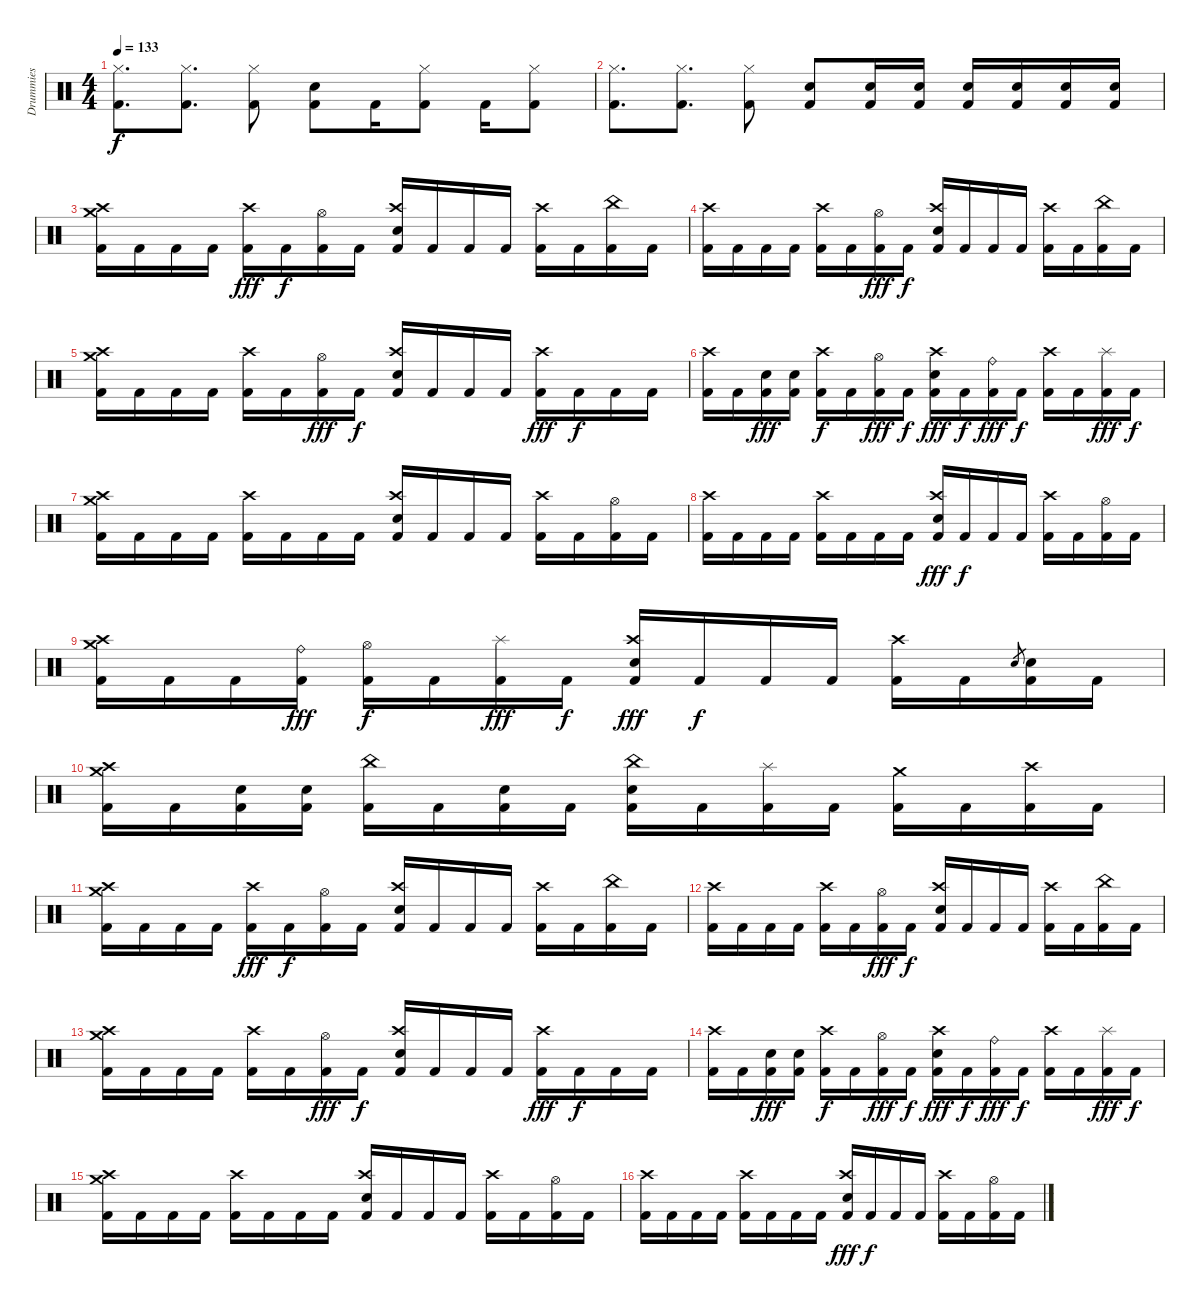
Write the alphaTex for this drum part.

\track ("Drummies" "Drummies") {instrument percussion}
\staff {score}
\articulation defaults
\ts (4 4)
\tempo 133
\clef neutral
\ks c
("Hi-Hat (closed)" "Kick (hit) 2").8{d dy f} ("Hi-Hat (closed)" "Kick (hit) 2").8{d} ("Hi-Hat (closed)" "Kick (hit) 2").8 ("Hand Clap (hit)" "Kick (hit) 2").8 "Kick (hit) 2".16 ("Hi-Hat (closed)" "Kick (hit) 2").8 "Kick (hit) 2".16 ("Hi-Hat (closed)" "Kick (hit) 2").8 |
("Hi-Hat (closed)" "Kick (hit) 2").8{d} ("Hi-Hat (closed)" "Kick (hit) 2").8{d} ("Hi-Hat (closed)" "Kick (hit) 2").8 ("Hand Clap (hit)" "Kick (hit) 2").8 ("Hand Clap (hit)" "Kick (hit) 2").16 ("Hand Clap (hit)" "Kick (hit) 2").16 ("Hand Clap (hit)" "Kick (hit) 2").16 ("Hand Clap (hit)" "Kick (hit) 2").16 ("Hand Clap (hit)" "Kick (hit) 2").16 ("Hand Clap (hit)" "Kick (hit) 2").16 |
("Crash high (hit)" "Crash medium (hit)" "Kick (hit) 2").16 "Kick (hit) 2".16 "Kick (hit) 2".16 "Kick (hit) 2".16 ("Crash high (hit)" "Kick (hit) 2").16{dy fff} "Kick (hit) 2".16{dy f} ("Hi-Hat (open)" "Kick (hit) 2").16 "Kick (hit) 2".16 ("Crash high (hit)" "Electric Snare (hit)" "Kick (hit) 2").16 "Kick (hit) 2".16 "Kick (hit) 2".16 "Kick (hit) 2".16 ("Crash high (hit)" "Kick (hit) 2").16 "Kick (hit) 2".16 ("China (hit)" "Kick (hit) 2").16 "Kick (hit) 2".16 |
("Crash high (hit)" "Kick (hit) 2").16 "Kick (hit) 2".16 "Kick (hit) 2".16 "Kick (hit) 2".16 ("Crash high (hit)" "Kick (hit) 2").16 "Kick (hit) 2".16 ("Hi-Hat (open)" "Kick (hit) 2").16{dy fff} "Kick (hit) 2".16{dy f} ("Crash high (hit)" "Electric Snare (hit)" "Kick (hit) 2").16 "Kick (hit) 2".16 "Kick (hit) 2".16 "Kick (hit) 2".16 ("Crash high (hit)" "Kick (hit) 2").16 "Kick (hit) 2".16 ("China (hit)" "Kick (hit) 2").16 "Kick (hit) 2".16 |
("Crash high (hit)" "Crash medium (hit)" "Kick (hit) 2").16 "Kick (hit) 2".16 "Kick (hit) 2".16 "Kick (hit) 2".16 ("Crash high (hit)" "Kick (hit) 2").16 "Kick (hit) 2".16 ("Hi-Hat (open)" "Kick (hit) 2").16{dy fff} "Kick (hit) 2".16{dy f} ("Crash high (hit)" "Electric Snare (hit)" "Kick (hit) 2").16 "Kick (hit) 2".16 "Kick (hit) 2".16 "Kick (hit) 2".16 ("Crash high (hit)" "Kick (hit) 2").16{dy fff} "Kick (hit) 2".16{dy f} "Kick (hit) 2".16 "Kick (hit) 2".16 |
("Crash high (hit)" "Kick (hit) 2").16 "Kick (hit) 2".16 ("Electric Snare (hit)" "Kick (hit) 2").16{dy fff} ("Electric Snare (hit)" "Kick (hit) 2").16 ("Crash high (hit)" "Kick (hit) 2").16{dy f} "Kick (hit) 2".16 ("Hi-Hat (open)" "Kick (hit) 2").16{dy fff} "Kick (hit) 2".16{dy f} ("Crash high (hit)" "Electric Snare (hit)" "Kick (hit) 2").16{dy fff} "Kick (hit) 2".16{dy f} ("Ride (bell)" "Kick (hit) 2").16{dy fff} "Kick (hit) 2".16{dy f} ("Crash high (hit)" "Kick (hit) 2").16 "Kick (hit) 2".16 ("Splash (hit)" "Kick (hit) 2").16{dy fff} "Kick (hit) 2".16{dy f} |
("Crash high (hit)" "Crash medium (hit)" "Kick (hit) 2").16 "Kick (hit) 2".16 "Kick (hit) 2".16 "Kick (hit) 2".16 ("Crash high (hit)" "Kick (hit) 2").16 "Kick (hit) 2".16 "Kick (hit) 2".16 "Kick (hit) 2".16 ("Crash high (hit)" "Electric Snare (hit)" "Kick (hit) 2").16 "Kick (hit) 2".16 "Kick (hit) 2".16 "Kick (hit) 2".16 ("Crash high (hit)" "Kick (hit) 2").16 "Kick (hit) 2".16 ("Hi-Hat (open)" "Kick (hit) 2").16 "Kick (hit) 2".16 |
("Crash high (hit)" "Kick (hit) 2").16 "Kick (hit) 2".16 "Kick (hit) 2".16 "Kick (hit) 2".16 ("Crash high (hit)" "Kick (hit) 2").16 "Kick (hit) 2".16 "Kick (hit) 2".16 "Kick (hit) 2".16 ("Crash high (hit)" "Electric Snare (hit)" "Kick (hit) 2").16{dy fff} "Kick (hit) 2".16{dy f} "Kick (hit) 2".16 "Kick (hit) 2".16 ("Crash high (hit)" "Kick (hit) 2").16 "Kick (hit) 2".16 ("Hi-Hat (open)" "Kick (hit) 2").16 "Kick (hit) 2".16 |
("Crash high (hit)" "Crash medium (hit)" "Kick (hit) 2").16 "Kick (hit) 2".16 "Kick (hit) 2".16 ("Ride (bell)" "Kick (hit) 2").16{dy fff} ("Hi-Hat (open)" "Kick (hit) 2").16{dy f} "Kick (hit) 2".16 ("Splash (hit)" "Kick (hit) 2").16{dy fff} "Kick (hit) 2".16{dy f} ("Crash high (hit)" "Electric Snare (hit)" "Kick (hit) 2").16{dy fff} "Kick (hit) 2".16{dy f} "Kick (hit) 2".16 "Kick (hit) 2".16 ("Crash high (hit)" "Kick (hit) 2").16 "Kick (hit) 2".16 "Electric Snare (hit)".8{gr} ("Electric Snare (hit)" "Kick (hit) 2").16 "Kick (hit) 2".16 |
("Crash medium (hit)" "Crash high (hit)" "Kick (hit) 2").16 "Kick (hit) 2".16 ("Electric Snare (hit)" "Kick (hit) 2").16 ("Electric Snare (hit)" "Kick (hit) 2").16 ("China (hit)" "Kick (hit) 2").16 "Kick (hit) 2".16 ("Electric Snare (hit)" "Kick (hit) 2").16 "Kick (hit) 2".16 ("China (hit)" "Electric Snare (hit)" "Kick (hit) 2").16 "Kick (hit) 2".16 ("Splash (hit)" "Kick (hit) 2").16 "Kick (hit) 2".16 ("Crash medium (hit)" "Kick (hit) 2").16 "Kick (hit) 2".16 ("Crash high (hit)" "Kick (hit) 2").16 "Kick (hit) 2".16 |
("Crash high (hit)" "Crash medium (hit)" "Kick (hit) 2").16 "Kick (hit) 2".16 "Kick (hit) 2".16 "Kick (hit) 2".16 ("Crash high (hit)" "Kick (hit) 2").16{dy fff} "Kick (hit) 2".16{dy f} ("Hi-Hat (open)" "Kick (hit) 2").16 "Kick (hit) 2".16 ("Crash high (hit)" "Electric Snare (hit)" "Kick (hit) 2").16 "Kick (hit) 2".16 "Kick (hit) 2".16 "Kick (hit) 2".16 ("Crash high (hit)" "Kick (hit) 2").16 "Kick (hit) 2".16 ("China (hit)" "Kick (hit) 2").16 "Kick (hit) 2".16 |
("Crash high (hit)" "Kick (hit) 2").16 "Kick (hit) 2".16 "Kick (hit) 2".16 "Kick (hit) 2".16 ("Crash high (hit)" "Kick (hit) 2").16 "Kick (hit) 2".16 ("Hi-Hat (open)" "Kick (hit) 2").16{dy fff} "Kick (hit) 2".16{dy f} ("Crash high (hit)" "Electric Snare (hit)" "Kick (hit) 2").16 "Kick (hit) 2".16 "Kick (hit) 2".16 "Kick (hit) 2".16 ("Crash high (hit)" "Kick (hit) 2").16 "Kick (hit) 2".16 ("China (hit)" "Kick (hit) 2").16 "Kick (hit) 2".16 |
("Crash high (hit)" "Crash medium (hit)" "Kick (hit) 2").16 "Kick (hit) 2".16 "Kick (hit) 2".16 "Kick (hit) 2".16 ("Crash high (hit)" "Kick (hit) 2").16 "Kick (hit) 2".16 ("Hi-Hat (open)" "Kick (hit) 2").16{dy fff} "Kick (hit) 2".16{dy f} ("Crash high (hit)" "Electric Snare (hit)" "Kick (hit) 2").16 "Kick (hit) 2".16 "Kick (hit) 2".16 "Kick (hit) 2".16 ("Crash high (hit)" "Kick (hit) 2").16{dy fff} "Kick (hit) 2".16{dy f} "Kick (hit) 2".16 "Kick (hit) 2".16 |
("Crash high (hit)" "Kick (hit) 2").16 "Kick (hit) 2".16 ("Electric Snare (hit)" "Kick (hit) 2").16{dy fff} ("Electric Snare (hit)" "Kick (hit) 2").16 ("Crash high (hit)" "Kick (hit) 2").16{dy f} "Kick (hit) 2".16 ("Hi-Hat (open)" "Kick (hit) 2").16{dy fff} "Kick (hit) 2".16{dy f} ("Crash high (hit)" "Electric Snare (hit)" "Kick (hit) 2").16{dy fff} "Kick (hit) 2".16{dy f} ("Ride (bell)" "Kick (hit) 2").16{dy fff} "Kick (hit) 2".16{dy f} ("Crash high (hit)" "Kick (hit) 2").16 "Kick (hit) 2".16 ("Splash (hit)" "Kick (hit) 2").16{dy fff} "Kick (hit) 2".16{dy f} |
("Crash high (hit)" "Crash medium (hit)" "Kick (hit) 2").16 "Kick (hit) 2".16 "Kick (hit) 2".16 "Kick (hit) 2".16 ("Crash high (hit)" "Kick (hit) 2").16 "Kick (hit) 2".16 "Kick (hit) 2".16 "Kick (hit) 2".16 ("Crash high (hit)" "Electric Snare (hit)" "Kick (hit) 2").16 "Kick (hit) 2".16 "Kick (hit) 2".16 "Kick (hit) 2".16 ("Crash high (hit)" "Kick (hit) 2").16 "Kick (hit) 2".16 ("Hi-Hat (open)" "Kick (hit) 2").16 "Kick (hit) 2".16 |
("Crash high (hit)" "Kick (hit) 2").16 "Kick (hit) 2".16 "Kick (hit) 2".16 "Kick (hit) 2".16 ("Crash high (hit)" "Kick (hit) 2").16 "Kick (hit) 2".16 "Kick (hit) 2".16 "Kick (hit) 2".16 ("Crash high (hit)" "Electric Snare (hit)" "Kick (hit) 2").16{dy fff} "Kick (hit) 2".16{dy f} "Kick (hit) 2".16 "Kick (hit) 2".16 ("Crash high (hit)" "Kick (hit) 2").16 "Kick (hit) 2".16 ("Hi-Hat (open)" "Kick (hit) 2").16 "Kick (hit) 2".16
